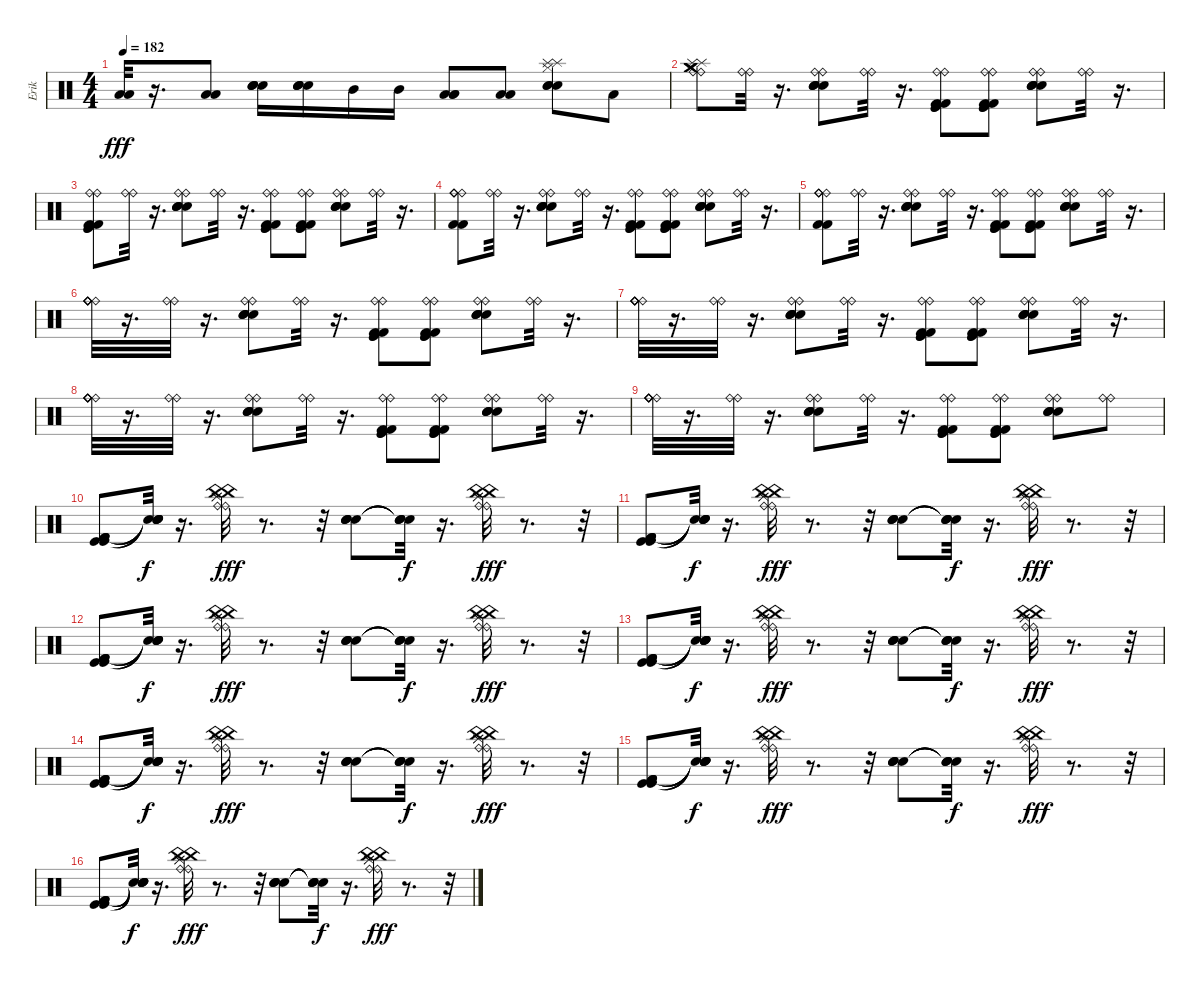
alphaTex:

\track ("Erik" "Erik") {instrument percussion}
\staff {score}
\articulation defaults
\ts (4 4)
\tempo 182
\clef neutral
\ks c
("Low Tom (hit)" "Low Tom (hit)").32{dy fff} r.16{d} ("Low Tom (hit)" "Low Tom (hit)").8 ("Electric Snare (hit)" "Electric Snare (hit)" "Snare (hit) 2" "Snare (hit) 2").16 ("Electric Snare (hit)" "Electric Snare (hit)" "Snare (hit) 2" "Snare (hit) 2").16 "Mid Tom (hit)".16 "Mid Tom (hit)".16 ("Low Tom (hit)" "Low Tom (hit)" "Low Tom (hit)").8 ("Low Tom (hit)" "Low Tom (hit)").8 ("Splash (hit)" "Splash (hit)" "Hi-Hat (closed)" "Electric Snare (hit)" "Electric Snare (hit)" "Snare (hit) 2").8 "Low Tom (hit)".8 |
("Crash medium (hit)" "Crash medium (hit)" "Splash (hit)" "Splash (hit)" "Ride (bell)" "Ride (bell)").8 ("Ride (bell)" "Ride (bell)").32 r.16{d} ("Electric Snare (hit)" "Electric Snare (hit)" "Snare (hit) 2" "Snare (hit) 2" "Ride (bell)" "Ride (bell)").8 ("Ride (bell)" "Ride (bell)").32 r.16{d} ("Ride (bell)" "Ride (bell)" "Kick (hit) 2" "Kick (hit) 2" "Kick (hit)" "Kick (hit)").8 ("Ride (bell)" "Ride (bell)" "Kick (hit) 2" "Kick (hit) 2" "Kick (hit)" "Kick (hit)").8 ("Ride (bell)" "Ride (bell)" "Electric Snare (hit)" "Electric Snare (hit)" "Snare (hit) 2" "Snare (hit) 2").8 ("Ride (bell)" "Ride (bell)").32 r.16{d} |
("Ride (bell)" "Ride (bell)" "Kick (hit) 2" "Kick (hit) 2" "Kick (hit)" "Kick (hit)").8 ("Ride (bell)" "Ride (bell)").32 r.16{d} ("Electric Snare (hit)" "Electric Snare (hit)" "Snare (hit) 2" "Snare (hit) 2" "Ride (bell)" "Ride (bell)").8 ("Ride (bell)" "Ride (bell)").32 r.16{d} ("Ride (bell)" "Ride (bell)" "Kick (hit) 2" "Kick (hit) 2" "Kick (hit)" "Kick (hit)").8 ("Ride (bell)" "Ride (bell)" "Kick (hit) 2" "Kick (hit) 2" "Kick (hit)" "Kick (hit)").8 ("Ride (bell)" "Ride (bell)" "Electric Snare (hit)" "Electric Snare (hit)" "Snare (hit) 2" "Snare (hit) 2").8 ("Ride (bell)" "Ride (bell)").32 r.16{d} |
("Ride (bell)" "Ride (bell)" "Ride (bell)" "Ride (bell)" "Kick (hit) 2" "Kick (hit) 2").8 ("Ride (bell)" "Ride (bell)").32 r.16{d} ("Electric Snare (hit)" "Electric Snare (hit)" "Snare (hit) 2" "Snare (hit) 2" "Ride (bell)" "Ride (bell)").8 ("Ride (bell)" "Ride (bell)").32 r.16{d} ("Ride (bell)" "Ride (bell)" "Kick (hit) 2" "Kick (hit) 2" "Kick (hit)" "Kick (hit)").8 ("Ride (bell)" "Ride (bell)" "Kick (hit) 2" "Kick (hit) 2" "Kick (hit)" "Kick (hit)").8 ("Ride (bell)" "Ride (bell)" "Electric Snare (hit)" "Electric Snare (hit)" "Snare (hit) 2" "Snare (hit) 2").8 ("Ride (bell)" "Ride (bell)").32 r.16{d} |
("Ride (bell)" "Ride (bell)" "Ride (bell)" "Ride (bell)" "Kick (hit) 2" "Kick (hit) 2").8 ("Ride (bell)" "Ride (bell)").32 r.16{d} ("Electric Snare (hit)" "Electric Snare (hit)" "Snare (hit) 2" "Snare (hit) 2" "Ride (bell)" "Ride (bell)").8 ("Ride (bell)" "Ride (bell)").32 r.16{d} ("Ride (bell)" "Ride (bell)" "Kick (hit) 2" "Kick (hit) 2" "Kick (hit)" "Kick (hit)").8 ("Ride (bell)" "Ride (bell)" "Kick (hit) 2" "Kick (hit) 2" "Kick (hit)" "Kick (hit)").8 ("Ride (bell)" "Ride (bell)" "Electric Snare (hit)" "Electric Snare (hit)" "Snare (hit) 2" "Snare (hit) 2").8 ("Ride (bell)" "Ride (bell)").32 r.16{d} |
("Ride (bell)" "Ride (bell)" "Ride (bell)" "Ride (bell)" "Ride (bell)" "Ride (bell)").32 r.16{d} ("Ride (bell)" "Ride (bell)").32 r.16{d} ("Electric Snare (hit)" "Electric Snare (hit)" "Snare (hit) 2" "Snare (hit) 2" "Ride (bell)" "Ride (bell)").8 ("Ride (bell)" "Ride (bell)").32 r.16{d} ("Ride (bell)" "Ride (bell)" "Kick (hit) 2" "Kick (hit) 2" "Kick (hit)" "Kick (hit)").8 ("Ride (bell)" "Ride (bell)" "Kick (hit) 2" "Kick (hit) 2" "Kick (hit)" "Kick (hit)").8 ("Ride (bell)" "Ride (bell)" "Electric Snare (hit)" "Electric Snare (hit)" "Snare (hit) 2" "Snare (hit) 2").8 ("Ride (bell)" "Ride (bell)").32 r.16{d} |
("Ride (bell)" "Ride (bell)" "Ride (bell)" "Ride (bell)" "Ride (bell)" "Ride (bell)").32 r.16{d} ("Ride (bell)" "Ride (bell)").32 r.16{d} ("Electric Snare (hit)" "Electric Snare (hit)" "Snare (hit) 2" "Snare (hit) 2" "Ride (bell)" "Ride (bell)").8 ("Ride (bell)" "Ride (bell)").32 r.16{d} ("Ride (bell)" "Ride (bell)" "Kick (hit) 2" "Kick (hit) 2" "Kick (hit)" "Kick (hit)").8 ("Ride (bell)" "Ride (bell)" "Kick (hit) 2" "Kick (hit) 2" "Kick (hit)" "Kick (hit)").8 ("Ride (bell)" "Ride (bell)" "Electric Snare (hit)" "Electric Snare (hit)" "Snare (hit) 2" "Snare (hit) 2").8 ("Ride (bell)" "Ride (bell)").32 r.16{d} |
("Ride (bell)" "Ride (bell)" "Ride (bell)" "Ride (bell)" "Ride (bell)" "Ride (bell)").32 r.16{d} ("Ride (bell)" "Ride (bell)").32 r.16{d} ("Electric Snare (hit)" "Electric Snare (hit)" "Snare (hit) 2" "Snare (hit) 2" "Ride (bell)" "Ride (bell)").8 ("Ride (bell)" "Ride (bell)").32 r.16{d} ("Ride (bell)" "Ride (bell)" "Kick (hit) 2" "Kick (hit) 2" "Kick (hit)" "Kick (hit)").8 ("Ride (bell)" "Ride (bell)" "Kick (hit) 2" "Kick (hit) 2" "Kick (hit)" "Kick (hit)").8 ("Ride (bell)" "Ride (bell)" "Electric Snare (hit)" "Electric Snare (hit)" "Snare (hit) 2" "Snare (hit) 2").8 ("Ride (bell)" "Ride (bell)").32 r.16{d} |
("Ride (bell)" "Ride (bell)" "Ride (bell)" "Ride (bell)" "Ride (bell)" "Ride (bell)").32 r.16{d} ("Ride (bell)" "Ride (bell)").32 r.16{d} ("Electric Snare (hit)" "Electric Snare (hit)" "Snare (hit) 2" "Snare (hit) 2" "Ride (bell)" "Ride (bell)").8 ("Ride (bell)" "Ride (bell)").32 r.16{d} ("Ride (bell)" "Ride (bell)" "Kick (hit) 2" "Kick (hit) 2" "Kick (hit)" "Kick (hit)").8 ("Ride (bell)" "Ride (bell)" "Kick (hit) 2" "Kick (hit) 2" "Kick (hit)" "Kick (hit)").8 ("Ride (bell)" "Ride (bell)" "Electric Snare (hit)" "Electric Snare (hit)" "Snare (hit) 2" "Snare (hit) 2").8 ("Ride (bell)" "Ride (bell)").8 |
("Kick (hit)" "Kick (hit)" "Kick (hit) 2" "Kick (hit) 2" "Kick (hit) 2").8 ("Snare (hit)"{t} "Snare (hit)"{t} "Snare (hit)"{t} "Snare (hit)"{t} "Snare (hit)"{t}).32{dy f} r.16{d} ("Splash (hit)" "Splash (hit)" "China (hit)" "China (hit)" "Ride (bell)" "Ride (bell)").32{dy fff} r.8{d} r.32 ("Electric Snare (hit)" "Electric Snare (hit)" "Snare (hit) 2" "Snare (hit) 2").8 ("Snare (hit)"{t} "Snare (hit)"{t} "Snare (hit)"{t} "Snare (hit)"{t}).32{dy f} r.16{d} ("Splash (hit)" "Splash (hit)" "Ride (bell)" "Ride (bell)" "China (hit)" "China (hit)").32{dy fff} r.8{d} r.32 |
("Kick (hit)" "Kick (hit)" "Kick (hit) 2" "Kick (hit) 2" "Kick (hit) 2").8 ("Snare (hit)"{t} "Snare (hit)"{t} "Snare (hit)"{t} "Snare (hit)"{t} "Snare (hit)"{t}).32{dy f} r.16{d} ("Splash (hit)" "Splash (hit)" "China (hit)" "China (hit)" "Ride (bell)" "Ride (bell)").32{dy fff} r.8{d} r.32 ("Electric Snare (hit)" "Electric Snare (hit)" "Snare (hit) 2" "Snare (hit) 2").8 ("Snare (hit)"{t} "Snare (hit)"{t} "Snare (hit)"{t} "Snare (hit)"{t}).32{dy f} r.16{d} ("Splash (hit)" "Splash (hit)" "Ride (bell)" "Ride (bell)" "China (hit)" "China (hit)").32{dy fff} r.8{d} r.32 |
("Kick (hit)" "Kick (hit)" "Kick (hit) 2" "Kick (hit) 2" "Kick (hit) 2").8 ("Snare (hit)"{t} "Snare (hit)"{t} "Snare (hit)"{t} "Snare (hit)"{t} "Snare (hit)"{t}).32{dy f} r.16{d} ("Splash (hit)" "Splash (hit)" "China (hit)" "China (hit)" "Ride (bell)" "Ride (bell)").32{dy fff} r.8{d} r.32 ("Electric Snare (hit)" "Electric Snare (hit)" "Snare (hit) 2" "Snare (hit) 2").8 ("Snare (hit)"{t} "Snare (hit)"{t} "Snare (hit)"{t} "Snare (hit)"{t}).32{dy f} r.16{d} ("Splash (hit)" "Splash (hit)" "Ride (bell)" "Ride (bell)" "China (hit)" "China (hit)").32{dy fff} r.8{d} r.32 |
("Kick (hit)" "Kick (hit)" "Kick (hit) 2" "Kick (hit) 2" "Kick (hit) 2").8 ("Snare (hit)"{t} "Snare (hit)"{t} "Snare (hit)"{t} "Snare (hit)"{t} "Snare (hit)"{t}).32{dy f} r.16{d} ("Splash (hit)" "Splash (hit)" "China (hit)" "China (hit)" "Ride (bell)" "Ride (bell)").32{dy fff} r.8{d} r.32 ("Electric Snare (hit)" "Electric Snare (hit)" "Snare (hit) 2" "Snare (hit) 2").8 ("Snare (hit)"{t} "Snare (hit)"{t} "Snare (hit)"{t} "Snare (hit)"{t}).32{dy f} r.16{d} ("Splash (hit)" "Splash (hit)" "Ride (bell)" "Ride (bell)" "China (hit)" "China (hit)").32{dy fff} r.8{d} r.32 |
("Kick (hit)" "Kick (hit)" "Kick (hit) 2" "Kick (hit) 2" "Kick (hit) 2").8 ("Snare (hit)"{t} "Snare (hit)"{t} "Snare (hit)"{t} "Snare (hit)"{t} "Snare (hit)"{t}).32{dy f} r.16{d} ("Splash (hit)" "Splash (hit)" "China (hit)" "China (hit)" "Ride (bell)" "Ride (bell)").32{dy fff} r.8{d} r.32 ("Electric Snare (hit)" "Electric Snare (hit)" "Snare (hit) 2" "Snare (hit) 2").8 ("Snare (hit)"{t} "Snare (hit)"{t} "Snare (hit)"{t} "Snare (hit)"{t}).32{dy f} r.16{d} ("Splash (hit)" "Splash (hit)" "Ride (bell)" "Ride (bell)" "China (hit)" "China (hit)").32{dy fff} r.8{d} r.32 |
("Kick (hit)" "Kick (hit)" "Kick (hit) 2" "Kick (hit) 2" "Kick (hit) 2").8 ("Snare (hit)"{t} "Snare (hit)"{t} "Snare (hit)"{t} "Snare (hit)"{t} "Snare (hit)"{t}).32{dy f} r.16{d} ("Splash (hit)" "Splash (hit)" "China (hit)" "China (hit)" "Ride (bell)" "Ride (bell)").32{dy fff} r.8{d} r.32 ("Electric Snare (hit)" "Electric Snare (hit)" "Snare (hit) 2" "Snare (hit) 2").8 ("Snare (hit)"{t} "Snare (hit)"{t} "Snare (hit)"{t} "Snare (hit)"{t}).32{dy f} r.16{d} ("Splash (hit)" "Splash (hit)" "Ride (bell)" "Ride (bell)" "China (hit)" "China (hit)").32{dy fff} r.8{d} r.32 |
("Kick (hit)" "Kick (hit)" "Kick (hit) 2" "Kick (hit) 2" "Kick (hit) 2").8 ("Snare (hit)"{t} "Snare (hit)"{t} "Snare (hit)"{t} "Snare (hit)"{t} "Snare (hit)"{t}).32{dy f} r.16{d} ("Splash (hit)" "Splash (hit)" "China (hit)" "China (hit)" "Ride (bell)" "Ride (bell)").32{dy fff} r.8{d} r.32 ("Electric Snare (hit)" "Electric Snare (hit)" "Snare (hit) 2" "Snare (hit) 2").8 ("Snare (hit)"{t} "Snare (hit)"{t} "Snare (hit)"{t} "Snare (hit)"{t}).32{dy f} r.16{d} ("Splash (hit)" "Splash (hit)" "Ride (bell)" "Ride (bell)" "China (hit)" "China (hit)").32{dy fff} r.8{d} r.32
